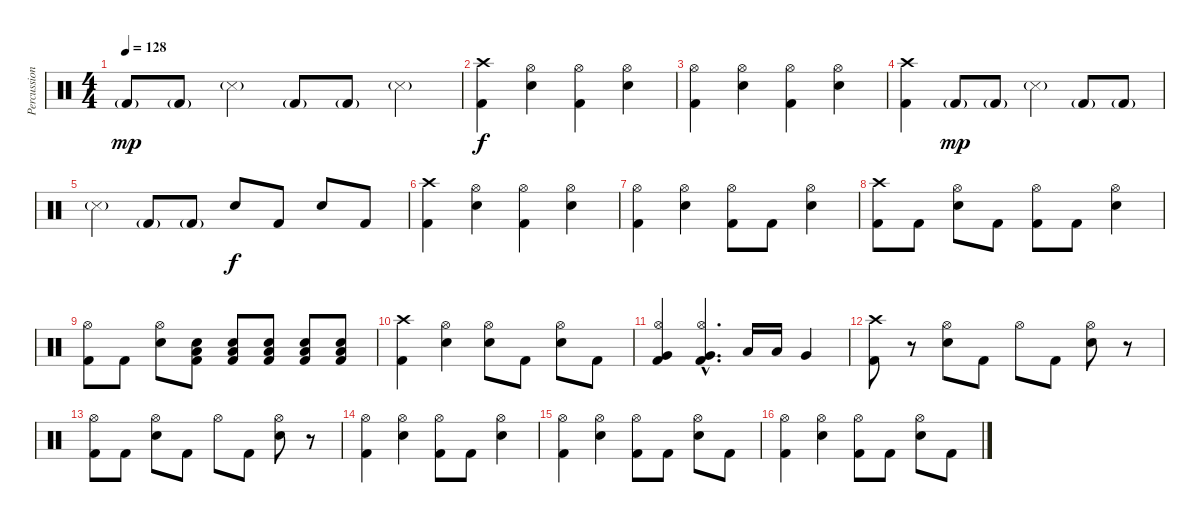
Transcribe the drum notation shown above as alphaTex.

\track ("Percussion" "Percussion") {instrument percussion}
\staff {score}
\articulation defaults
\ts (4 4)
\tempo 128
\clef neutral
\ks c "Kick (hit) 2"{g}.8{dy mp} "Kick (hit) 2"{g}.8 "Snare (side stick) 3"{g}.4 "Kick (hit) 2"{g}.8 "Kick (hit) 2"{g}.8 "Snare (side stick) 3"{g}.4
|
("Crash high (hit)" "Kick (hit) 2").4{dy f} ("Hi-Hat (open)" "Snare (hit) 2").4 ("Hi-Hat (open)" "Kick (hit) 2").4 ("Hi-Hat (open)" "Snare (hit) 2").4 |
("Hi-Hat (open)" "Kick (hit) 2").4 ("Hi-Hat (open)" "Snare (hit) 2").4 ("Hi-Hat (open)" "Kick (hit) 2").4 ("Hi-Hat (open)" "Snare (hit) 2").4 |
("Crash high (hit)" "Kick (hit) 2").4 "Kick (hit) 2"{g}.8{dy mp} "Kick (hit) 2"{g}.8 "Snare (side stick) 3"{g}.4 "Kick (hit) 2"{g}.8 "Kick (hit) 2"{g}.8 |
"Snare (side stick) 3"{g}.4 "Kick (hit) 2"{g}.8 "Kick (hit) 2"{g}.8 "Snare (hit) 2".8{dy f} "Kick (hit) 2".8 "Snare (hit) 2".8 "Kick (hit) 2".8 |
("Crash high (hit)" "Kick (hit) 2").4 ("Hi-Hat (open)" "Snare (hit) 2").4 ("Hi-Hat (open)" "Kick (hit) 2").4 ("Hi-Hat (open)" "Snare (hit) 2").4 |
("Hi-Hat (open)" "Kick (hit) 2").4 ("Hi-Hat (open)" "Snare (hit) 2").4 ("Hi-Hat (open)" "Kick (hit) 2").8 "Kick (hit) 2".8 ("Hi-Hat (open)" "Snare (hit) 2").4 |
("Crash high (hit)" "Kick (hit) 2").8 "Kick (hit) 2".8 ("Hi-Hat (open)" "Snare (hit) 2").8 "Kick (hit) 2".8 ("Hi-Hat (open)" "Kick (hit) 2").8 "Kick (hit) 2".8 ("Hi-Hat (open)" "Snare (hit) 2").4 |
("Hi-Hat (open)" "Kick (hit) 2").8 "Kick (hit) 2".8 ("Hi-Hat (open)" "Snare (hit) 2").8 ("Low Tom (hit)" "Snare (hit) 2" "Kick (hit) 2").8 ("Low Tom (hit)" "Snare (hit) 2" "Kick (hit) 2").8 ("Low Tom (hit)" "Snare (hit) 2" "Kick (hit) 2").8 ("Low Tom (hit)" "Snare (hit) 2" "Kick (hit) 2").8 ("Low Tom (hit)" "Snare (hit) 2" "Kick (hit) 2").8 |
("Crash high (hit)" "Kick (hit) 2").4 ("Hi-Hat (open)" "Snare (hit) 2").4 ("Hi-Hat (open)" "Snare (hit) 2").8 "Kick (hit) 2".8 ("Hi-Hat (open)" "Snare (hit) 2").8 "Kick (hit) 2".8 |
("Hi-Hat (open)" "Very Low Tom (hit)" "Kick (hit) 2").4 ("Hi-Hat (open)"{hac} "Very Low Tom (hit)"{hac} "Kick (hit) 2"{hac}).4{d} "Low Tom (hit)".16 "Low Tom (hit)".16 "Very Low Tom (hit)".4 |
("Crash high (hit)" "Kick (hit) 2").8 r.8 ("Hi-Hat (open)" "Snare (hit) 2").8 "Kick (hit) 2".8 "Hi-Hat (open)".8 "Kick (hit) 2".8 ("Hi-Hat (open)" "Snare (hit) 2").8 r.8 |
("Hi-Hat (open)" "Kick (hit) 2").8 "Kick (hit) 2".8 ("Hi-Hat (open)" "Snare (hit) 2").8 "Kick (hit) 2".8 "Hi-Hat (open)".8 "Kick (hit) 2".8 ("Hi-Hat (open)" "Snare (hit) 2").8 r.8 |
("Hi-Hat (open)" "Kick (hit) 2").4 ("Hi-Hat (open)" "Snare (hit) 2").4 ("Hi-Hat (open)" "Kick (hit) 2").8 "Kick (hit) 2".8 ("Hi-Hat (open)" "Snare (hit) 2").4 |
("Hi-Hat (open)" "Kick (hit) 2").4 ("Hi-Hat (open)" "Snare (hit) 2").4 ("Hi-Hat (open)" "Kick (hit) 2").8 "Kick (hit) 2".8 ("Hi-Hat (open)" "Snare (hit) 2").8 "Kick (hit) 2".8 |
("Hi-Hat (open)" "Kick (hit) 2").4 ("Hi-Hat (open)" "Snare (hit) 2").4 ("Hi-Hat (open)" "Kick (hit) 2").8 "Kick (hit) 2".8 ("Hi-Hat (open)" "Snare (hit) 2").8 "Kick (hit) 2".8
